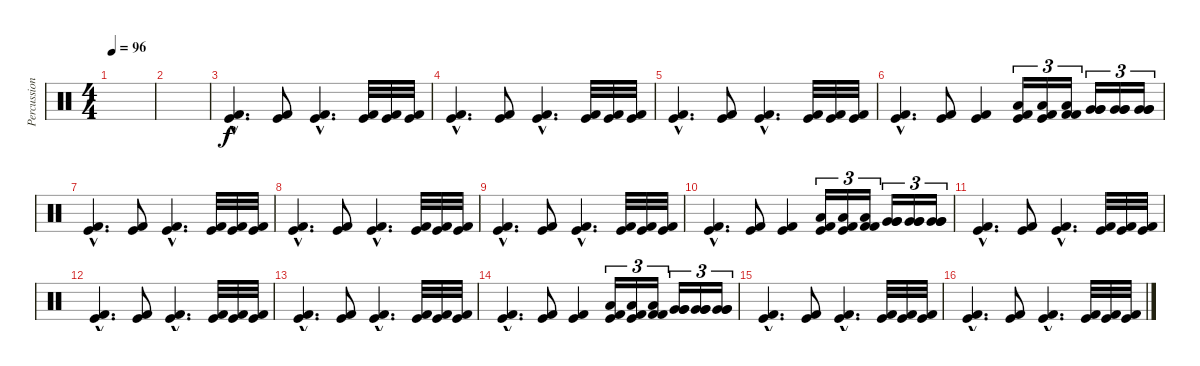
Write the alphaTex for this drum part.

\track ("Percussion" "Percussion") {instrument percussion}
\staff {score}
\articulation defaults
\ts (4 4)
\tempo 96
\clef neutral
\ks c
|
|
("Kick (hit) 2"{hac} "Kick (hit)"{hac}).4{d} ("Kick (hit) 2" "Kick (hit)").8 ("Kick (hit)"{hac} "Kick (hit) 2"{hac}).4{d} ("Kick (hit) 2" "Kick (hit)").32 ("Kick (hit) 2" "Kick (hit)").32 ("Kick (hit) 2" "Kick (hit)").32 |
("Kick (hit) 2"{hac} "Kick (hit)"{hac}).4{d} ("Kick (hit) 2" "Kick (hit)").8 ("Kick (hit)"{hac} "Kick (hit) 2"{hac}).4{d} ("Kick (hit) 2" "Kick (hit)").32 ("Kick (hit) 2" "Kick (hit)").32 ("Kick (hit) 2" "Kick (hit)").32 |
("Kick (hit) 2"{hac} "Kick (hit)"{hac}).4{d} ("Kick (hit) 2" "Kick (hit)").8 ("Kick (hit)"{hac} "Kick (hit) 2"{hac}).4{d} ("Kick (hit) 2" "Kick (hit)").32 ("Kick (hit) 2" "Kick (hit)").32 ("Kick (hit) 2" "Kick (hit)").32 |
("Kick (hit) 2"{hac} "Kick (hit)"{hac}).4{d} ("Kick (hit) 2" "Kick (hit)").8 ("Kick (hit)" "Kick (hit) 2").4 ("Low Tom (hit)" "Kick (hit) 2" "Kick (hit)").16{tu (3 2)} ("Low Tom (hit)" "Kick (hit) 2" "Kick (hit)").16{tu (3 2)} ("Low Tom (hit)" "Kick (hit) 2" "Kick (hit) 2").16{tu (3 2)} ("Very Low Tom (hit)" "Very Low Tom (hit)" "Very Low Tom (hit)").16{tu (3 2)} ("Very Low Tom (hit)" "Very Low Tom (hit)" "Very Low Tom (hit)").16{tu (3 2)} ("Very Low Tom (hit)" "Very Low Tom (hit)" "Very Low Tom (hit)").16{tu (3 2)} |
("Kick (hit) 2"{hac} "Kick (hit)"{hac}).4{d} ("Kick (hit) 2" "Kick (hit)").8 ("Kick (hit)"{hac} "Kick (hit) 2"{hac}).4{d} ("Kick (hit) 2" "Kick (hit)").32 ("Kick (hit) 2" "Kick (hit)").32 ("Kick (hit) 2" "Kick (hit)").32 |
("Kick (hit) 2"{hac} "Kick (hit)"{hac}).4{d} ("Kick (hit) 2" "Kick (hit)").8 ("Kick (hit)"{hac} "Kick (hit) 2"{hac}).4{d} ("Kick (hit) 2" "Kick (hit)").32 ("Kick (hit) 2" "Kick (hit)").32 ("Kick (hit) 2" "Kick (hit)").32 |
("Kick (hit) 2"{hac} "Kick (hit)"{hac}).4{d} ("Kick (hit) 2" "Kick (hit)").8 ("Kick (hit)"{hac} "Kick (hit) 2"{hac}).4{d} ("Kick (hit) 2" "Kick (hit)").32 ("Kick (hit) 2" "Kick (hit)").32 ("Kick (hit) 2" "Kick (hit)").32 |
("Kick (hit) 2"{hac} "Kick (hit)"{hac}).4{d} ("Kick (hit) 2" "Kick (hit)").8 ("Kick (hit)" "Kick (hit) 2").4 ("Low Tom (hit)" "Kick (hit) 2" "Kick (hit)").16{tu (3 2)} ("Low Tom (hit)" "Kick (hit) 2" "Kick (hit)").16{tu (3 2)} ("Low Tom (hit)" "Kick (hit) 2" "Kick (hit) 2").16{tu (3 2)} ("Very Low Tom (hit)" "Very Low Tom (hit)" "Very Low Tom (hit)").16{tu (3 2)} ("Very Low Tom (hit)" "Very Low Tom (hit)" "Very Low Tom (hit)").16{tu (3 2)} ("Very Low Tom (hit)" "Very Low Tom (hit)" "Very Low Tom (hit)").16{tu (3 2)} |
("Kick (hit) 2"{hac} "Kick (hit)"{hac}).4{d} ("Kick (hit) 2" "Kick (hit)").8 ("Kick (hit)"{hac} "Kick (hit) 2"{hac}).4{d} ("Kick (hit) 2" "Kick (hit)").32 ("Kick (hit) 2" "Kick (hit)").32 ("Kick (hit) 2" "Kick (hit)").32 |
("Kick (hit) 2"{hac} "Kick (hit)"{hac}).4{d} ("Kick (hit) 2" "Kick (hit)").8 ("Kick (hit)"{hac} "Kick (hit) 2"{hac}).4{d} ("Kick (hit) 2" "Kick (hit)").32 ("Kick (hit) 2" "Kick (hit)").32 ("Kick (hit) 2" "Kick (hit)").32 |
("Kick (hit) 2"{hac} "Kick (hit)"{hac}).4{d} ("Kick (hit) 2" "Kick (hit)").8 ("Kick (hit)"{hac} "Kick (hit) 2"{hac}).4{d} ("Kick (hit) 2" "Kick (hit)").32 ("Kick (hit) 2" "Kick (hit)").32 ("Kick (hit) 2" "Kick (hit)").32 |
("Kick (hit) 2"{hac} "Kick (hit)"{hac}).4{d} ("Kick (hit) 2" "Kick (hit)").8 ("Kick (hit)" "Kick (hit) 2").4 ("Low Tom (hit)" "Kick (hit) 2" "Kick (hit)").16{tu (3 2)} ("Low Tom (hit)" "Kick (hit) 2" "Kick (hit)").16{tu (3 2)} ("Low Tom (hit)" "Kick (hit) 2" "Kick (hit) 2").16{tu (3 2)} ("Very Low Tom (hit)" "Very Low Tom (hit)" "Very Low Tom (hit)").16{tu (3 2)} ("Very Low Tom (hit)" "Very Low Tom (hit)" "Very Low Tom (hit)").16{tu (3 2)} ("Very Low Tom (hit)" "Very Low Tom (hit)" "Very Low Tom (hit)").16{tu (3 2)} |
("Kick (hit) 2"{hac} "Kick (hit)"{hac}).4{d} ("Kick (hit) 2" "Kick (hit)").8 ("Kick (hit)"{hac} "Kick (hit) 2"{hac}).4{d} ("Kick (hit) 2" "Kick (hit)").32 ("Kick (hit) 2" "Kick (hit)").32 ("Kick (hit) 2" "Kick (hit)").32 |
("Kick (hit) 2"{hac} "Kick (hit)"{hac}).4{d} ("Kick (hit) 2" "Kick (hit)").8 ("Kick (hit)"{hac} "Kick (hit) 2"{hac}).4{d} ("Kick (hit) 2" "Kick (hit)").32 ("Kick (hit) 2" "Kick (hit)").32 ("Kick (hit) 2" "Kick (hit)").32
